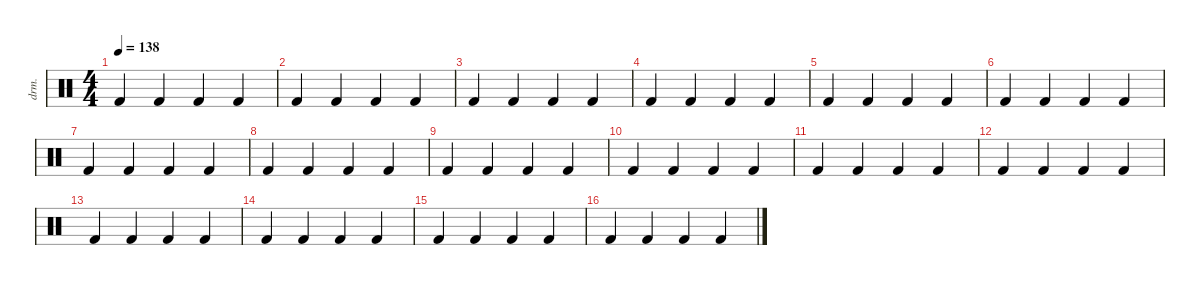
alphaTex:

\defaultSystemsLayout 4
\hideDynamics
\bracketExtendMode nobrackets
\otherSystemsTrackNameOrientation horizontal
\track ("Drumkit" "drm.") {instrument percussion bank 128}
\staff {score}
\articulation defaults
\ts (4 4)
\beaming (8 2 2 2 2)
\tempo 138
\clef neutral
\ks c "Kick (hit) 2".4{dy mf beam Up} "Kick (hit) 2".4{beam Up} "Kick (hit) 2".4{beam Up} "Kick (hit) 2".4{beam Up}
|
"Kick (hit) 2".4{beam Up} "Kick (hit) 2".4{beam Up} "Kick (hit) 2".4{beam Up} "Kick (hit) 2".4{beam Up} |
"Kick (hit) 2".4{beam Up} "Kick (hit) 2".4{beam Up} "Kick (hit) 2".4{beam Up} "Kick (hit) 2".4{beam Up} |
"Kick (hit) 2".4{beam Up} "Kick (hit) 2".4{beam Up} "Kick (hit) 2".4{beam Up} "Kick (hit) 2".4{beam Up} |
"Kick (hit) 2".4{beam Up} "Kick (hit) 2".4{beam Up} "Kick (hit) 2".4{beam Up} "Kick (hit) 2".4{beam Up} |
"Kick (hit) 2".4{beam Up} "Kick (hit) 2".4{beam Up} "Kick (hit) 2".4{beam Up} "Kick (hit) 2".4{beam Up} |
"Kick (hit) 2".4{beam Up} "Kick (hit) 2".4{beam Up} "Kick (hit) 2".4{beam Up} "Kick (hit) 2".4{beam Up} |
"Kick (hit) 2".4{beam Up} "Kick (hit) 2".4{beam Up} "Kick (hit) 2".4{beam Up} "Kick (hit) 2".4{beam Up} |
"Kick (hit) 2".4{beam Up} "Kick (hit) 2".4{beam Up} "Kick (hit) 2".4{beam Up} "Kick (hit) 2".4{beam Up} |
"Kick (hit) 2".4{beam Up} "Kick (hit) 2".4{beam Up} "Kick (hit) 2".4{beam Up} "Kick (hit) 2".4{beam Up} |
"Kick (hit) 2".4{beam Up} "Kick (hit) 2".4{beam Up} "Kick (hit) 2".4{beam Up} "Kick (hit) 2".4{beam Up} |
"Kick (hit) 2".4{beam Up} "Kick (hit) 2".4{beam Up} "Kick (hit) 2".4{beam Up} "Kick (hit) 2".4{beam Up} |
"Kick (hit) 2".4{beam Up} "Kick (hit) 2".4{beam Up} "Kick (hit) 2".4{beam Up} "Kick (hit) 2".4{beam Up} |
"Kick (hit) 2".4{beam Up} "Kick (hit) 2".4{beam Up} "Kick (hit) 2".4{beam Up} "Kick (hit) 2".4{beam Up} |
"Kick (hit) 2".4{beam Up} "Kick (hit) 2".4{beam Up} "Kick (hit) 2".4{beam Up} "Kick (hit) 2".4{beam Up} |
"Kick (hit) 2".4{beam Up} "Kick (hit) 2".4{beam Up} "Kick (hit) 2".4{beam Up} "Kick (hit) 2".4{beam Up}
